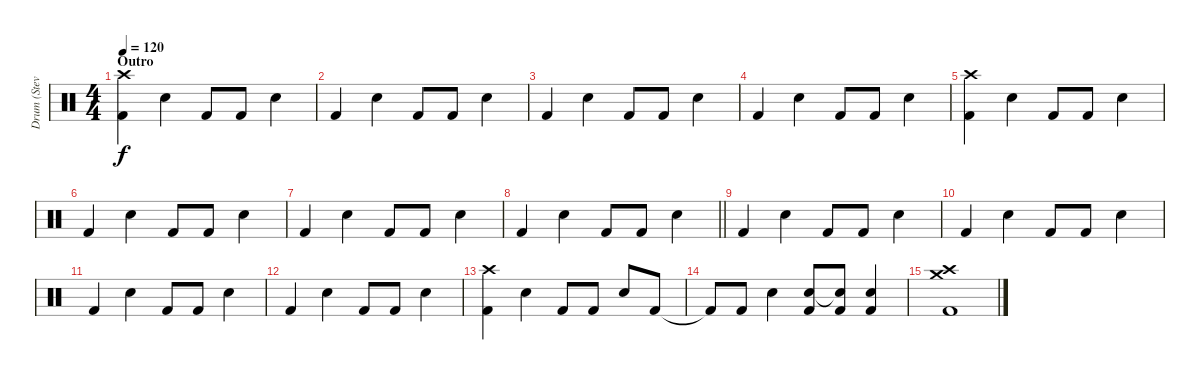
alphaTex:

\track ("Drum (Steven)" "Drum (Stev") {instrument percussion}
\staff {score}
\articulation defaults
\ts (4 4)
\section ("" "Outro")
\tempo 120
\clef neutral
\ks c
("Kick (hit) 2" "Crash high (hit)").4{dy f} "Snare (hit) 2".4 "Kick (hit) 2".8 "Kick (hit) 2".8 "Snare (hit) 2".4 |
"Kick (hit) 2".4 "Snare (hit) 2".4 "Kick (hit) 2".8 "Kick (hit) 2".8 "Snare (hit) 2".4 |
"Kick (hit) 2".4 "Snare (hit) 2".4 "Kick (hit) 2".8 "Kick (hit) 2".8 "Snare (hit) 2".4 |
"Kick (hit) 2".4 "Snare (hit) 2".4 "Kick (hit) 2".8 "Kick (hit) 2".8 "Snare (hit) 2".4 |
("Kick (hit) 2" "Crash high (hit)").4 "Snare (hit) 2".4 "Kick (hit) 2".8 "Kick (hit) 2".8 "Snare (hit) 2".4 |
"Kick (hit) 2".4 "Snare (hit) 2".4 "Kick (hit) 2".8 "Kick (hit) 2".8 "Snare (hit) 2".4 |
"Kick (hit) 2".4 "Snare (hit) 2".4 "Kick (hit) 2".8 "Kick (hit) 2".8 "Snare (hit) 2".4 |
\barLineRight lightlight "Kick (hit) 2".4 "Snare (hit) 2".4 "Kick (hit) 2".8 "Kick (hit) 2".8 "Snare (hit) 2".4
|
"Kick (hit) 2".4 "Snare (hit) 2".4 "Kick (hit) 2".8 "Kick (hit) 2".8 "Snare (hit) 2".4 |
"Kick (hit) 2".4 "Snare (hit) 2".4 "Kick (hit) 2".8 "Kick (hit) 2".8 "Snare (hit) 2".4 |
"Kick (hit) 2".4 "Snare (hit) 2".4 "Kick (hit) 2".8 "Kick (hit) 2".8 "Snare (hit) 2".4 |
"Kick (hit) 2".4 "Snare (hit) 2".4 "Kick (hit) 2".8 "Kick (hit) 2".8 "Snare (hit) 2".4 |
("Kick (hit) 2" "Crash high (hit)").4 "Snare (hit) 2".4 "Kick (hit) 2".8 "Kick (hit) 2".8 "Snare (hit) 2".8 "Kick (hit) 2".8 |
"Kick (hit) 2"{t}.8 "Kick (hit) 2".8 "Snare (hit) 2".4 ("Snare (hit) 2" "Kick (hit) 2").8 ("Snare (hit) 2"{t} "Kick (hit) 2").8 ("Snare (hit) 2" "Kick (hit) 2").4 |
("Kick (hit) 2" "Crash high (hit)" "Crash medium (hit)").1
